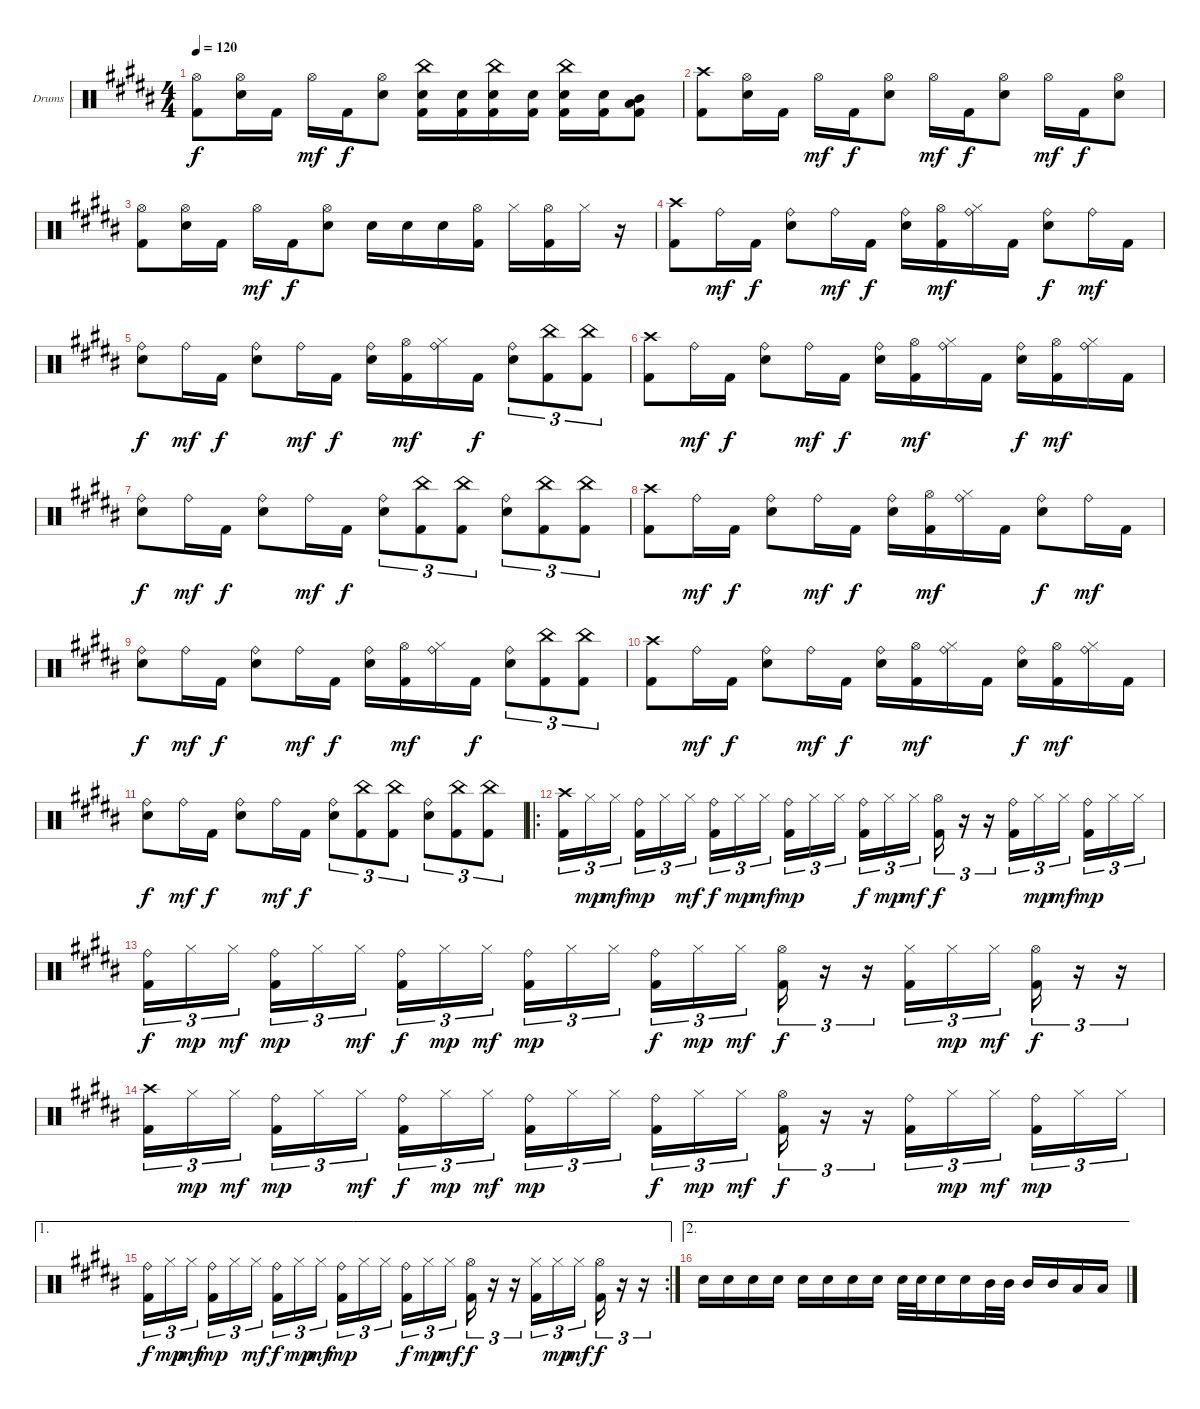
\bracketExtendMode groupsimilarinstruments
\firstSystemTrackNameOrientation horizontal
\otherSystemsTrackNameOrientation horizontal
\track ("Drumkit" "Drums") {instrument percussion}
\staff {score}
\articulation defaults
\ts (4 4)
\tempo 120
\clef neutral
\ks g#minor
("Hi-Hat (open)"{acc forcenatural} "Kick (hit) 2"{acc forcenatural}).8{dy f} ("Hi-Hat (open)"{acc forcenatural} "Snare (hit) 2"{acc forcenatural}).16 "Kick (hit) 2"{acc forcenatural}.16 "Hi-Hat (open)"{acc forcenatural}.16{dy mf} "Kick (hit) 2"{acc forcenatural}.16{dy f} ("Hi-Hat (open)"{acc forcenatural} "Snare (hit) 2"{acc forcenatural}).8 ("China (hit)"{acc forcenatural} "Snare (hit) 2"{acc forcenatural} "Kick (hit) 2"{acc forcenatural}).16 ("Snare (hit) 2"{acc forcenatural} "Kick (hit) 2"{acc forcenatural}).16 ("China (hit)"{acc forcenatural} "Snare (hit) 2"{acc forcenatural} "Kick (hit) 2"{acc forcenatural}).16 ("Snare (hit) 2"{acc forcenatural} "Kick (hit) 2"{acc forcenatural}).16 ("China (hit)"{acc forcenatural} "Snare (hit) 2"{acc forcenatural} "Kick (hit) 2"{acc forcenatural}).16 ("Snare (hit) 2"{acc forcenatural} "Kick (hit) 2"{acc forcenatural}).16 ("Mid Tom (hit)"{acc forcenatural} "Low Tom (hit)"{acc forcenatural} "Kick (hit) 2"{acc forcenatural}).8 |
("Crash high (hit)"{acc forcenatural} "Kick (hit) 2"{acc forcenatural}).8 ("Hi-Hat (open)"{acc forcenatural} "Snare (hit) 2"{acc forcenatural}).16 "Kick (hit) 2"{acc forcenatural}.16 "Hi-Hat (open)"{acc forcenatural}.16{dy mf} "Kick (hit) 2"{acc forcenatural}.16{dy f} ("Hi-Hat (open)"{acc forcenatural} "Snare (hit) 2"{acc forcenatural}).8 "Hi-Hat (open)"{acc forcenatural}.16{dy mf} "Kick (hit) 2"{acc forcenatural}.16{dy f} ("Hi-Hat (open)"{acc forcenatural} "Snare (hit) 2"{acc forcenatural}).8 "Hi-Hat (open)"{acc forcenatural}.16{dy mf} "Kick (hit) 2"{acc forcenatural}.16{dy f} ("Hi-Hat (open)"{acc forcenatural} "Snare (hit) 2"{acc forcenatural}).8 |
("Hi-Hat (open)"{acc forcenatural} "Kick (hit) 2"{acc forcenatural}).8 ("Hi-Hat (open)"{acc forcenatural} "Snare (hit) 2"{acc forcenatural}).16 "Kick (hit) 2"{acc forcenatural}.16 "Hi-Hat (open)"{acc forcenatural}.16{dy mf} "Kick (hit) 2"{acc forcenatural}.16{dy f} ("Hi-Hat (open)"{acc forcenatural} "Snare (hit) 2"{acc forcenatural}).8 "Snare (hit) 2"{acc forcenatural}.16 "Snare (hit) 2"{acc forcenatural}.16 "Snare (hit) 2"{acc forcenatural}.16 ("Hi-Hat (open)"{acc forcenatural} "Kick (hit) 2"{acc forcenatural}).16 "Hi-Hat (closed)"{acc forcenatural}.16 ("Hi-Hat (open)"{acc forcenatural} "Kick (hit) 2"{acc forcenatural}).16 "Hi-Hat (closed)"{acc forcenatural}.16 r.16 |
("Crash high (hit)"{acc forcenatural} "Kick (hit) 2"{acc forcenatural}).8 "Ride (bell)"{acc forcenatural}.16{dy mf} "Kick (hit) 2"{acc forcenatural}.16{dy f} ("Ride (bell)"{acc forcenatural} "Snare (hit) 2"{acc forcenatural}).8 "Ride (bell)"{acc forcenatural}.16{dy mf} "Kick (hit) 2"{acc forcenatural}.16{dy f} ("Ride (bell)"{acc forcenatural} "Snare (hit) 2"{acc forcenatural}).16 ("Hi-Hat (open)"{acc forcenatural} "Kick (hit) 2"{acc forcenatural}).16{dy mf} ("Ride (bell)"{acc forcenatural} "Hi-Hat (closed)"{acc forcenatural}).16 "Kick (hit) 2"{acc forcenatural}.16 ("Ride (bell)"{acc forcenatural} "Snare (hit) 2"{acc forcenatural}).8{dy f} "Ride (bell)"{acc forcenatural}.16{dy mf} "Kick (hit) 2"{acc forcenatural}.16 |
("Ride (bell)"{acc forcenatural} "Snare (hit) 2"{acc forcenatural}).8{dy f} "Ride (bell)"{acc forcenatural}.16{dy mf} "Kick (hit) 2"{acc forcenatural}.16{dy f} ("Ride (bell)"{acc forcenatural} "Snare (hit) 2"{acc forcenatural}).8 "Ride (bell)"{acc forcenatural}.16{dy mf} "Kick (hit) 2"{acc forcenatural}.16{dy f} ("Ride (bell)"{acc forcenatural} "Snare (hit) 2"{acc forcenatural}).16 ("Hi-Hat (open)"{acc forcenatural} "Kick (hit) 2"{acc forcenatural}).16{dy mf} ("Ride (bell)"{acc forcenatural} "Hi-Hat (closed)"{acc forcenatural}).16 "Kick (hit) 2"{acc forcenatural}.16{dy f} ("Ride (bell)"{acc forcenatural} "Snare (hit) 2"{acc forcenatural}).8{tu (3 2)} ("China (hit)"{acc forcenatural} "Kick (hit) 2"{acc forcenatural}).8{tu (3 2)} ("China (hit)"{acc forcenatural} "Kick (hit) 2"{acc forcenatural}).8{tu (3 2)} |
("Crash high (hit)"{acc forcenatural} "Kick (hit) 2"{acc forcenatural}).8 "Ride (bell)"{acc forcenatural}.16{dy mf} "Kick (hit) 2"{acc forcenatural}.16{dy f} ("Ride (bell)"{acc forcenatural} "Snare (hit) 2"{acc forcenatural}).8 "Ride (bell)"{acc forcenatural}.16{dy mf} "Kick (hit) 2"{acc forcenatural}.16{dy f} ("Ride (bell)"{acc forcenatural} "Snare (hit) 2"{acc forcenatural}).16 ("Hi-Hat (open)"{acc forcenatural} "Kick (hit) 2"{acc forcenatural}).16{dy mf} ("Ride (bell)"{acc forcenatural} "Hi-Hat (closed)"{acc forcenatural}).16 "Kick (hit) 2"{acc forcenatural}.16 ("Ride (bell)"{acc forcenatural} "Snare (hit) 2"{acc forcenatural}).16{dy f} ("Hi-Hat (open)"{acc forcenatural} "Kick (hit) 2"{acc forcenatural}).16{dy mf} ("Ride (bell)"{acc forcenatural} "Hi-Hat (closed)"{acc forcenatural}).16 "Kick (hit) 2"{acc forcenatural}.16 |
("Ride (bell)"{acc forcenatural} "Snare (hit) 2"{acc forcenatural}).8{dy f} "Ride (bell)"{acc forcenatural}.16{dy mf} "Kick (hit) 2"{acc forcenatural}.16{dy f} ("Ride (bell)"{acc forcenatural} "Snare (hit) 2"{acc forcenatural}).8 "Ride (bell)"{acc forcenatural}.16{dy mf} "Kick (hit) 2"{acc forcenatural}.16{dy f} ("Ride (bell)"{acc forcenatural} "Snare (hit) 2"{acc forcenatural}).8{tu (3 2)} ("China (hit)"{acc forcenatural} "Kick (hit) 2"{acc forcenatural}).8{tu (3 2)} ("China (hit)"{acc forcenatural} "Kick (hit) 2"{acc forcenatural}).8{tu (3 2)} ("Ride (bell)"{acc forcenatural} "Snare (hit) 2"{acc forcenatural}).8{tu (3 2)} ("China (hit)"{acc forcenatural} "Kick (hit) 2"{acc forcenatural}).8{tu (3 2)} ("China (hit)"{acc forcenatural} "Kick (hit) 2"{acc forcenatural}).8{tu (3 2)} |
("Crash high (hit)"{acc forcenatural} "Kick (hit) 2"{acc forcenatural}).8 "Ride (bell)"{acc forcenatural}.16{dy mf} "Kick (hit) 2"{acc forcenatural}.16{dy f} ("Ride (bell)"{acc forcenatural} "Snare (hit) 2"{acc forcenatural}).8 "Ride (bell)"{acc forcenatural}.16{dy mf} "Kick (hit) 2"{acc forcenatural}.16{dy f} ("Ride (bell)"{acc forcenatural} "Snare (hit) 2"{acc forcenatural}).16 ("Hi-Hat (open)"{acc forcenatural} "Kick (hit) 2"{acc forcenatural}).16{dy mf} ("Ride (bell)"{acc forcenatural} "Hi-Hat (closed)"{acc forcenatural}).16 "Kick (hit) 2"{acc forcenatural}.16 ("Ride (bell)"{acc forcenatural} "Snare (hit) 2"{acc forcenatural}).8{dy f} "Ride (bell)"{acc forcenatural}.16{dy mf} "Kick (hit) 2"{acc forcenatural}.16 |
("Ride (bell)"{acc forcenatural} "Snare (hit) 2"{acc forcenatural}).8{dy f} "Ride (bell)"{acc forcenatural}.16{dy mf} "Kick (hit) 2"{acc forcenatural}.16{dy f} ("Ride (bell)"{acc forcenatural} "Snare (hit) 2"{acc forcenatural}).8 "Ride (bell)"{acc forcenatural}.16{dy mf} "Kick (hit) 2"{acc forcenatural}.16{dy f} ("Ride (bell)"{acc forcenatural} "Snare (hit) 2"{acc forcenatural}).16 ("Hi-Hat (open)"{acc forcenatural} "Kick (hit) 2"{acc forcenatural}).16{dy mf} ("Ride (bell)"{acc forcenatural} "Hi-Hat (closed)"{acc forcenatural}).16 "Kick (hit) 2"{acc forcenatural}.16{dy f} ("Ride (bell)"{acc forcenatural} "Snare (hit) 2"{acc forcenatural}).8{tu (3 2)} ("China (hit)"{acc forcenatural} "Kick (hit) 2"{acc forcenatural}).8{tu (3 2)} ("China (hit)"{acc forcenatural} "Kick (hit) 2"{acc forcenatural}).8{tu (3 2)} |
("Crash high (hit)"{acc forcenatural} "Kick (hit) 2"{acc forcenatural}).8 "Ride (bell)"{acc forcenatural}.16{dy mf} "Kick (hit) 2"{acc forcenatural}.16{dy f} ("Ride (bell)"{acc forcenatural} "Snare (hit) 2"{acc forcenatural}).8 "Ride (bell)"{acc forcenatural}.16{dy mf} "Kick (hit) 2"{acc forcenatural}.16{dy f} ("Ride (bell)"{acc forcenatural} "Snare (hit) 2"{acc forcenatural}).16 ("Hi-Hat (open)"{acc forcenatural} "Kick (hit) 2"{acc forcenatural}).16{dy mf} ("Ride (bell)"{acc forcenatural} "Hi-Hat (closed)"{acc forcenatural}).16 "Kick (hit) 2"{acc forcenatural}.16 ("Ride (bell)"{acc forcenatural} "Snare (hit) 2"{acc forcenatural}).16{dy f} ("Hi-Hat (open)"{acc forcenatural} "Kick (hit) 2"{acc forcenatural}).16{dy mf} ("Ride (bell)"{acc forcenatural} "Hi-Hat (closed)"{acc forcenatural}).16 "Kick (hit) 2"{acc forcenatural}.16 |
("Ride (bell)"{acc forcenatural} "Snare (hit) 2"{acc forcenatural}).8{dy f} "Ride (bell)"{acc forcenatural}.16{dy mf} "Kick (hit) 2"{acc forcenatural}.16{dy f} ("Ride (bell)"{acc forcenatural} "Snare (hit) 2"{acc forcenatural}).8 "Ride (bell)"{acc forcenatural}.16{dy mf} "Kick (hit) 2"{acc forcenatural}.16{dy f} ("Ride (bell)"{acc forcenatural} "Snare (hit) 2"{acc forcenatural}).8{tu (3 2)} ("China (hit)"{acc forcenatural} "Kick (hit) 2"{acc forcenatural}).8{tu (3 2)} ("China (hit)"{acc forcenatural} "Kick (hit) 2"{acc forcenatural}).8{tu (3 2)} ("Ride (bell)"{acc forcenatural} "Snare (hit) 2"{acc forcenatural}).8{tu (3 2)} ("China (hit)"{acc forcenatural} "Kick (hit) 2"{acc forcenatural}).8{tu (3 2)} ("China (hit)"{acc forcenatural} "Kick (hit) 2"{acc forcenatural}).8{tu (3 2)} |
\ro
("Crash high (hit)"{acc forcenatural} "Kick (hit) 2"{acc forcenatural}).16{tu (3 2)} "Hi-Hat (closed)"{acc forcenatural}.16{tu (3 2) dy mp} "Hi-Hat (closed)"{acc forcenatural}.16{tu (3 2) dy mf} ("Ride (bell)"{acc forcenatural} "Kick (hit) 2"{acc forcenatural}).16{tu (3 2) dy mp} "Hi-Hat (closed)"{acc forcenatural}.16{tu (3 2)} "Hi-Hat (closed)"{acc forcenatural}.16{tu (3 2) dy mf} ("Ride (bell)"{acc forcenatural} "Kick (hit) 2"{acc forcenatural}).16{tu (3 2) dy f} "Hi-Hat (closed)"{acc forcenatural}.16{tu (3 2) dy mp} "Hi-Hat (closed)"{acc forcenatural}.16{tu (3 2) dy mf} ("Ride (bell)"{acc forcenatural} "Kick (hit) 2"{acc forcenatural}).16{tu (3 2) dy mp} "Hi-Hat (closed)"{acc forcenatural}.16{tu (3 2)} "Hi-Hat (closed)"{acc forcenatural}.16{tu (3 2)} ("Ride (bell)"{acc forcenatural} "Kick (hit) 2"{acc forcenatural}).16{tu (3 2) dy f} "Hi-Hat (closed)"{acc forcenatural}.16{tu (3 2) dy mp} "Hi-Hat (closed)"{acc forcenatural}.16{tu (3 2) dy mf} ("Hi-Hat (open)"{acc forcenatural} "Kick (hit) 2"{acc forcenatural}).16{tu (3 2) dy f} r.16{tu (3 2)} r.16{tu (3 2)} ("Ride (bell)"{acc forcenatural} "Kick (hit) 2"{acc forcenatural}).16{tu (3 2)} "Hi-Hat (closed)"{acc forcenatural}.16{tu (3 2) dy mp} "Hi-Hat (closed)"{acc forcenatural}.16{tu (3 2) dy mf} ("Ride (bell)"{acc forcenatural} "Kick (hit) 2"{acc forcenatural}).16{tu (3 2) dy mp} "Hi-Hat (closed)"{acc forcenatural}.16{tu (3 2)} "Hi-Hat (closed)"{acc forcenatural}.16{tu (3 2)} |
("Ride (bell)"{acc forcenatural} "Kick (hit) 2"{acc forcenatural}).16{tu (3 2) dy f} "Hi-Hat (closed)"{acc forcenatural}.16{tu (3 2) dy mp} "Hi-Hat (closed)"{acc forcenatural}.16{tu (3 2) dy mf} ("Ride (bell)"{acc forcenatural} "Kick (hit) 2"{acc forcenatural}).16{tu (3 2) dy mp} "Hi-Hat (closed)"{acc forcenatural}.16{tu (3 2)} "Hi-Hat (closed)"{acc forcenatural}.16{tu (3 2) dy mf} ("Ride (bell)"{acc forcenatural} "Kick (hit) 2"{acc forcenatural}).16{tu (3 2) dy f} "Hi-Hat (closed)"{acc forcenatural}.16{tu (3 2) dy mp} "Hi-Hat (closed)"{acc forcenatural}.16{tu (3 2) dy mf} ("Ride (bell)"{acc forcenatural} "Kick (hit) 2"{acc forcenatural}).16{tu (3 2) dy mp} "Hi-Hat (closed)"{acc forcenatural}.16{tu (3 2)} "Hi-Hat (closed)"{acc forcenatural}.16{tu (3 2)} ("Ride (bell)"{acc forcenatural} "Kick (hit) 2"{acc forcenatural}).16{tu (3 2) dy f} "Hi-Hat (closed)"{acc forcenatural}.16{tu (3 2) dy mp} "Hi-Hat (closed)"{acc forcenatural}.16{tu (3 2) dy mf} ("Hi-Hat (open)"{acc forcenatural} "Kick (hit) 2"{acc forcenatural}).16{tu (3 2) dy f} r.16{tu (3 2)} r.16{tu (3 2)} ("Hi-Hat (closed)"{acc forcenatural} "Kick (hit) 2"{acc forcenatural}).16{tu (3 2)} "Hi-Hat (closed)"{acc forcenatural}.16{tu (3 2) dy mp} "Hi-Hat (closed)"{acc forcenatural}.16{tu (3 2) dy mf} ("Hi-Hat (open)"{acc forcenatural} "Kick (hit) 2"{acc forcenatural}).16{tu (3 2) dy f} r.16{tu (3 2)} r.16{tu (3 2)} |
("Crash high (hit)"{acc forcenatural} "Kick (hit) 2"{acc forcenatural}).16{tu (3 2)} "Hi-Hat (closed)"{acc forcenatural}.16{tu (3 2) dy mp} "Hi-Hat (closed)"{acc forcenatural}.16{tu (3 2) dy mf} ("Ride (bell)"{acc forcenatural} "Kick (hit) 2"{acc forcenatural}).16{tu (3 2) dy mp} "Hi-Hat (closed)"{acc forcenatural}.16{tu (3 2)} "Hi-Hat (closed)"{acc forcenatural}.16{tu (3 2) dy mf} ("Ride (bell)"{acc forcenatural} "Kick (hit) 2"{acc forcenatural}).16{tu (3 2) dy f} "Hi-Hat (closed)"{acc forcenatural}.16{tu (3 2) dy mp} "Hi-Hat (closed)"{acc forcenatural}.16{tu (3 2) dy mf} ("Ride (bell)"{acc forcenatural} "Kick (hit) 2"{acc forcenatural}).16{tu (3 2) dy mp} "Hi-Hat (closed)"{acc forcenatural}.16{tu (3 2)} "Hi-Hat (closed)"{acc forcenatural}.16{tu (3 2)} ("Ride (bell)"{acc forcenatural} "Kick (hit) 2"{acc forcenatural}).16{tu (3 2) dy f} "Hi-Hat (closed)"{acc forcenatural}.16{tu (3 2) dy mp} "Hi-Hat (closed)"{acc forcenatural}.16{tu (3 2) dy mf} ("Hi-Hat (open)"{acc forcenatural} "Kick (hit) 2"{acc forcenatural}).16{tu (3 2) dy f} r.16{tu (3 2)} r.16{tu (3 2)} ("Ride (bell)"{acc forcenatural} "Kick (hit) 2"{acc forcenatural}).16{tu (3 2)} "Hi-Hat (closed)"{acc forcenatural}.16{tu (3 2) dy mp} "Hi-Hat (closed)"{acc forcenatural}.16{tu (3 2) dy mf} ("Ride (bell)"{acc forcenatural} "Kick (hit) 2"{acc forcenatural}).16{tu (3 2) dy mp} "Hi-Hat (closed)"{acc forcenatural}.16{tu (3 2)} "Hi-Hat (closed)"{acc forcenatural}.16{tu (3 2)} |
\ae 1
\rc 2
("Ride (bell)"{acc forcenatural} "Kick (hit) 2"{acc forcenatural}).16{tu (3 2) dy f} "Hi-Hat (closed)"{acc forcenatural}.16{tu (3 2) dy mp} "Hi-Hat (closed)"{acc forcenatural}.16{tu (3 2) dy mf} ("Ride (bell)"{acc forcenatural} "Kick (hit) 2"{acc forcenatural}).16{tu (3 2) dy mp} "Hi-Hat (closed)"{acc forcenatural}.16{tu (3 2)} "Hi-Hat (closed)"{acc forcenatural}.16{tu (3 2) dy mf} ("Ride (bell)"{acc forcenatural} "Kick (hit) 2"{acc forcenatural}).16{tu (3 2) dy f} "Hi-Hat (closed)"{acc forcenatural}.16{tu (3 2) dy mp} "Hi-Hat (closed)"{acc forcenatural}.16{tu (3 2) dy mf} ("Ride (bell)"{acc forcenatural} "Kick (hit) 2"{acc forcenatural}).16{tu (3 2) dy mp} "Hi-Hat (closed)"{acc forcenatural}.16{tu (3 2)} "Hi-Hat (closed)"{acc forcenatural}.16{tu (3 2)} ("Ride (bell)"{acc forcenatural} "Kick (hit) 2"{acc forcenatural}).16{tu (3 2) dy f} "Hi-Hat (closed)"{acc forcenatural}.16{tu (3 2) dy mp} "Hi-Hat (closed)"{acc forcenatural}.16{tu (3 2) dy mf} ("Hi-Hat (open)"{acc forcenatural} "Kick (hit) 2"{acc forcenatural}).16{tu (3 2) dy f} r.16{tu (3 2)} r.16{tu (3 2)} ("Hi-Hat (closed)"{acc forcenatural} "Kick (hit) 2"{acc forcenatural}).16{tu (3 2)} "Hi-Hat (closed)"{acc forcenatural}.16{tu (3 2) dy mp} "Hi-Hat (closed)"{acc forcenatural}.16{tu (3 2) dy mf} ("Hi-Hat (open)"{acc forcenatural} "Kick (hit) 2"{acc forcenatural}).16{tu (3 2) dy f} r.16{tu (3 2)} r.16{tu (3 2)} |
\ae 2 "Snare (hit) 2"{acc forcenatural}.16 "Snare (hit) 2"{acc forcenatural}.16 "Snare (hit) 2"{acc forcenatural}.16 "Snare (hit) 2"{acc forcenatural}.16 "Snare (hit) 2"{acc forcenatural}.16 "Snare (hit) 2"{acc forcenatural}.16 "Snare (hit) 2"{acc forcenatural}.16 "Snare (hit) 2"{acc forcenatural}.16 "Snare (hit) 2"{acc forcenatural}.32 "Snare (hit) 2"{acc forcenatural}.32 "Snare (hit) 2"{acc forcenatural}.16 "Snare (hit) 2"{acc forcenatural}.16 "Mid Tom (hit)"{acc forcenatural}.32 "Mid Tom (hit)"{acc forcenatural}.32 "Mid Tom (hit)"{acc forcenatural}.16 "Mid Tom (hit)"{acc forcenatural}.16 "Low Tom (hit)"{acc forcenatural}.16 "Low Tom (hit)"{acc forcenatural}.16
